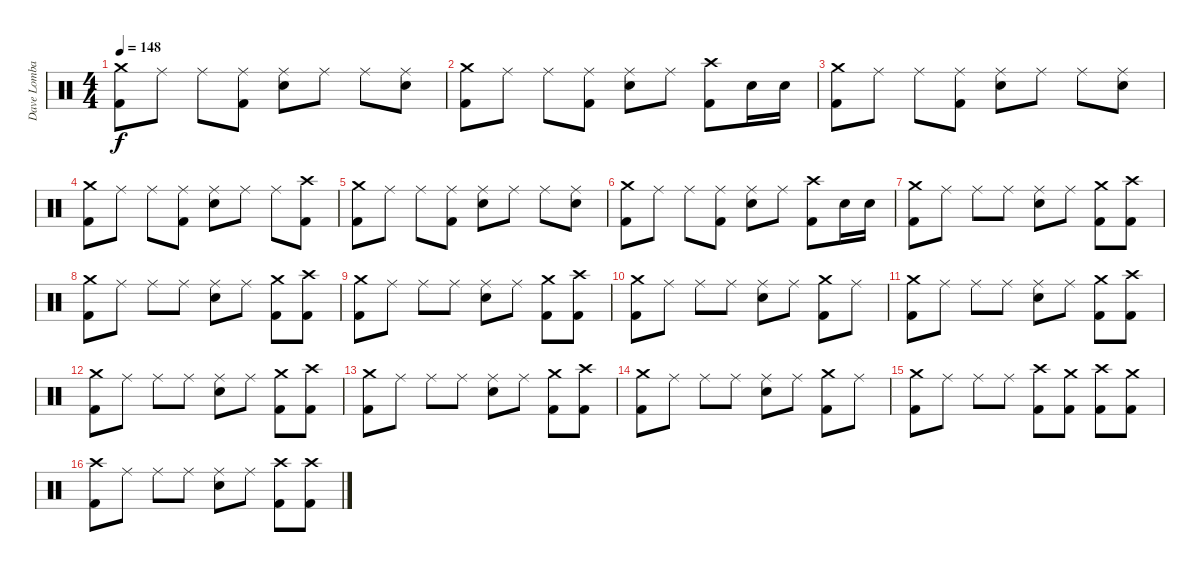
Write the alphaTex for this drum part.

\track ("Dave Lombardo" "Dave Lomba") {instrument percussion}
\staff {score}
\articulation defaults
\ts (4 4)
\tempo 148
\clef neutral
\ks c
("Crash medium (hit)" "Kick (hit) 2").8{dy f} "Ride (middle)".8 "Ride (middle)".8 ("Kick (hit) 2" "Ride (middle)").8 ("Electric Snare (hit)" "Ride (middle)").8 "Ride (middle)".8 "Ride (middle)".8 ("Electric Snare (hit)" "Ride (middle)").8 |
("Crash medium (hit)" "Kick (hit) 2").8 "Ride (middle)".8 "Ride (middle)".8 ("Kick (hit) 2" "Ride (middle)").8 ("Electric Snare (hit)" "Ride (middle)").8 "Ride (middle)".8 ("Crash high (hit)" "Kick (hit) 2").8 "Electric Snare (hit)".16 "Electric Snare (hit)".16 |
("Crash medium (hit)" "Kick (hit) 2").8 "Ride (middle)".8 "Ride (middle)".8 ("Kick (hit) 2" "Ride (middle)").8 ("Electric Snare (hit)" "Ride (middle)").8 "Ride (middle)".8 "Ride (middle)".8 ("Electric Snare (hit)" "Ride (middle)").8 |
("Crash medium (hit)" "Kick (hit) 2").8 "Ride (middle)".8 "Ride (middle)".8 ("Kick (hit) 2" "Ride (middle)").8 ("Electric Snare (hit)" "Ride (middle)").8 "Ride (middle)".8 "Ride (middle)".8 ("Kick (hit) 2" "Crash high (hit)").8 |
("Crash medium (hit)" "Kick (hit) 2").8 "Ride (middle)".8 "Ride (middle)".8 ("Kick (hit) 2" "Ride (middle)").8 ("Electric Snare (hit)" "Ride (middle)").8 "Ride (middle)".8 "Ride (middle)".8 ("Electric Snare (hit)" "Ride (middle)").8 |
("Crash medium (hit)" "Kick (hit) 2").8 "Ride (middle)".8 "Ride (middle)".8 ("Kick (hit) 2" "Ride (middle)").8 ("Electric Snare (hit)" "Ride (middle)").8 "Ride (middle)".8 ("Crash high (hit)" "Kick (hit) 2").8 "Electric Snare (hit)".16 "Electric Snare (hit)".16 |
("Crash medium (hit)" "Kick (hit) 2").8 "Ride (middle)".8 "Ride (middle)".8 "Ride (middle)".8 ("Electric Snare (hit)" "Ride (middle)").8 "Ride (middle)".8 ("Kick (hit) 2" "Crash medium (hit)").8 ("Kick (hit) 2" "Crash high (hit)").8 |
("Crash medium (hit)" "Kick (hit) 2").8 "Ride (middle)".8 "Ride (middle)".8 "Ride (middle)".8 ("Electric Snare (hit)" "Ride (middle)").8 "Ride (middle)".8 ("Kick (hit) 2" "Crash medium (hit)").8 ("Kick (hit) 2" "Crash high (hit)").8 |
("Crash medium (hit)" "Kick (hit) 2").8 "Ride (middle)".8 "Ride (middle)".8 "Ride (middle)".8 ("Electric Snare (hit)" "Ride (middle)").8 "Ride (middle)".8 ("Kick (hit) 2" "Crash medium (hit)").8 ("Kick (hit) 2" "Crash high (hit)").8 |
("Crash medium (hit)" "Kick (hit) 2").8 "Ride (middle)".8 "Ride (middle)".8 "Ride (middle)".8 ("Electric Snare (hit)" "Ride (middle)").8 "Ride (middle)".8 ("Kick (hit) 2" "Crash medium (hit)").8 "Ride (middle)".8 |
("Crash medium (hit)" "Kick (hit) 2").8 "Ride (middle)".8 "Ride (middle)".8 "Ride (middle)".8 ("Electric Snare (hit)" "Ride (middle)").8 "Ride (middle)".8 ("Kick (hit) 2" "Crash medium (hit)").8 ("Kick (hit) 2" "Crash high (hit)").8 |
("Crash medium (hit)" "Kick (hit) 2").8 "Ride (middle)".8 "Ride (middle)".8 "Ride (middle)".8 ("Electric Snare (hit)" "Ride (middle)").8 "Ride (middle)".8 ("Kick (hit) 2" "Crash medium (hit)").8 ("Kick (hit) 2" "Crash high (hit)").8 |
("Crash medium (hit)" "Kick (hit) 2").8 "Ride (middle)".8 "Ride (middle)".8 "Ride (middle)".8 ("Electric Snare (hit)" "Ride (middle)").8 "Ride (middle)".8 ("Kick (hit) 2" "Crash medium (hit)").8 ("Kick (hit) 2" "Crash high (hit)").8 |
("Crash medium (hit)" "Kick (hit) 2").8 "Ride (middle)".8 "Ride (middle)".8 "Ride (middle)".8 ("Electric Snare (hit)" "Ride (middle)").8 "Ride (middle)".8 ("Kick (hit) 2" "Crash medium (hit)").8 "Ride (middle)".8 |
("Crash medium (hit)" "Kick (hit) 2").8 "Ride (middle)".8 "Ride (middle)".8 "Ride (middle)".8 ("Kick (hit) 2" "Crash high (hit)").8 ("Kick (hit) 2" "Crash medium (hit)").8 ("Kick (hit) 2" "Crash high (hit)").8 ("Kick (hit) 2" "Crash medium (hit)").8 |
("Kick (hit) 2" "Crash high (hit)").8 "Ride (middle)".8 "Ride (middle)".8 "Ride (middle)".8 ("Electric Snare (hit)" "Ride (middle)").8 "Ride (middle)".8 ("Kick (hit) 2" "Crash high (hit)").8 ("Crash high (hit)" "Kick (hit) 2").8
